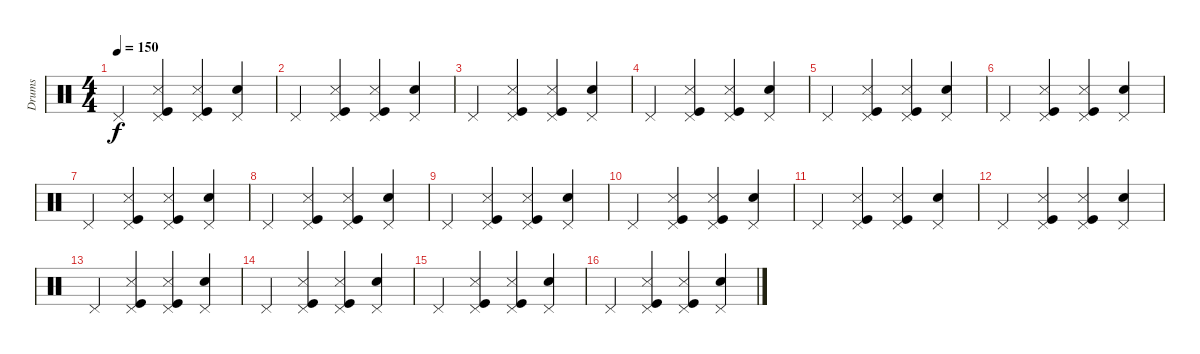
\track ("Drums" "Drums") {instrument percussion}
\staff {score}
\articulation defaults
\ts (4 4)
\tempo 150
\clef neutral
\ks c "Pedal Hi-Hat (hit)".4{dy f}
("Pedal Hi-Hat (hit)" "Snare (side stick) 3" "Kick (hit)").4 ("Pedal Hi-Hat (hit)" "Snare (side stick) 3" "Kick (hit)").4 ("Pedal Hi-Hat (hit)" "Snare (hit) 2").4 |
"Pedal Hi-Hat (hit)".4 ("Pedal Hi-Hat (hit)" "Snare (side stick) 3" "Kick (hit)").4 ("Pedal Hi-Hat (hit)" "Snare (side stick) 3" "Kick (hit)").4 ("Pedal Hi-Hat (hit)" "Snare (hit) 2").4 |
"Pedal Hi-Hat (hit)".4 ("Pedal Hi-Hat (hit)" "Snare (side stick) 3" "Kick (hit)").4 ("Pedal Hi-Hat (hit)" "Snare (side stick) 3" "Kick (hit)").4 ("Pedal Hi-Hat (hit)" "Snare (hit) 2").4 |
"Pedal Hi-Hat (hit)".4 ("Pedal Hi-Hat (hit)" "Snare (side stick) 3" "Kick (hit)").4 ("Pedal Hi-Hat (hit)" "Snare (side stick) 3" "Kick (hit)").4 ("Pedal Hi-Hat (hit)" "Snare (hit) 2").4 |
"Pedal Hi-Hat (hit)".4 ("Pedal Hi-Hat (hit)" "Snare (side stick) 3" "Kick (hit)").4 ("Pedal Hi-Hat (hit)" "Snare (side stick) 3" "Kick (hit)").4 ("Pedal Hi-Hat (hit)" "Snare (hit) 2").4 |
"Pedal Hi-Hat (hit)".4 ("Pedal Hi-Hat (hit)" "Snare (side stick) 3" "Kick (hit)").4 ("Pedal Hi-Hat (hit)" "Snare (side stick) 3" "Kick (hit)").4 ("Pedal Hi-Hat (hit)" "Snare (hit) 2").4 |
"Pedal Hi-Hat (hit)".4 ("Pedal Hi-Hat (hit)" "Snare (side stick) 3" "Kick (hit)").4 ("Pedal Hi-Hat (hit)" "Snare (side stick) 3" "Kick (hit)").4 ("Pedal Hi-Hat (hit)" "Snare (hit) 2").4 |
"Pedal Hi-Hat (hit)".4 ("Pedal Hi-Hat (hit)" "Snare (side stick) 3" "Kick (hit)").4 ("Pedal Hi-Hat (hit)" "Snare (side stick) 3" "Kick (hit)").4 ("Pedal Hi-Hat (hit)" "Snare (hit) 2").4 |
"Pedal Hi-Hat (hit)".4 ("Pedal Hi-Hat (hit)" "Snare (side stick) 3" "Kick (hit)").4 ("Pedal Hi-Hat (hit)" "Snare (side stick) 3" "Kick (hit)").4 ("Pedal Hi-Hat (hit)" "Snare (hit) 2").4 |
"Pedal Hi-Hat (hit)".4 ("Pedal Hi-Hat (hit)" "Snare (side stick) 3" "Kick (hit)").4 ("Pedal Hi-Hat (hit)" "Snare (side stick) 3" "Kick (hit)").4 ("Pedal Hi-Hat (hit)" "Snare (hit) 2").4 |
"Pedal Hi-Hat (hit)".4 ("Pedal Hi-Hat (hit)" "Snare (side stick) 3" "Kick (hit)").4 ("Pedal Hi-Hat (hit)" "Snare (side stick) 3" "Kick (hit)").4 ("Pedal Hi-Hat (hit)" "Snare (hit) 2").4 |
"Pedal Hi-Hat (hit)".4 ("Pedal Hi-Hat (hit)" "Snare (side stick) 3" "Kick (hit)").4 ("Pedal Hi-Hat (hit)" "Snare (side stick) 3" "Kick (hit)").4 ("Pedal Hi-Hat (hit)" "Snare (hit) 2").4 |
"Pedal Hi-Hat (hit)".4 ("Pedal Hi-Hat (hit)" "Snare (side stick) 3" "Kick (hit)").4 ("Pedal Hi-Hat (hit)" "Snare (side stick) 3" "Kick (hit)").4 ("Pedal Hi-Hat (hit)" "Snare (hit) 2").4 |
"Pedal Hi-Hat (hit)".4 ("Pedal Hi-Hat (hit)" "Snare (side stick) 3" "Kick (hit)").4 ("Pedal Hi-Hat (hit)" "Snare (side stick) 3" "Kick (hit)").4 ("Pedal Hi-Hat (hit)" "Snare (hit) 2").4 |
"Pedal Hi-Hat (hit)".4 ("Pedal Hi-Hat (hit)" "Snare (side stick) 3" "Kick (hit)").4 ("Pedal Hi-Hat (hit)" "Snare (side stick) 3" "Kick (hit)").4 ("Pedal Hi-Hat (hit)" "Snare (hit) 2").4 |
"Pedal Hi-Hat (hit)".4 ("Pedal Hi-Hat (hit)" "Snare (side stick) 3" "Kick (hit)").4 ("Pedal Hi-Hat (hit)" "Snare (side stick) 3" "Kick (hit)").4 ("Pedal Hi-Hat (hit)" "Snare (hit) 2").4
